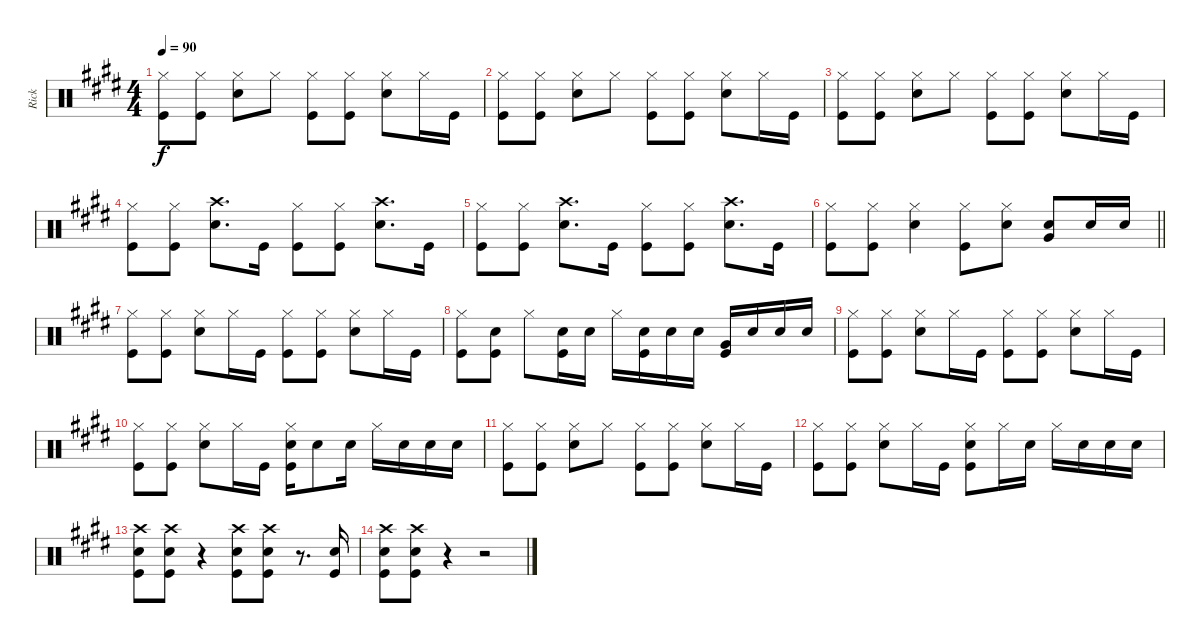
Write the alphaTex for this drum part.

\track ("Rick" "Rick") {instrument percussion}
\staff {score}
\articulation defaults
\ts (4 4)
\tempo 90
\clef neutral
\ks e
("Hi-Hat (closed)" "Kick (hit)").8{dy f} ("Hi-Hat (closed)" "Kick (hit)").8 ("Hi-Hat (closed)" "Snare (hit) 2").8 "Hi-Hat (closed)".8 ("Hi-Hat (closed)" "Kick (hit)").8 ("Hi-Hat (closed)" "Kick (hit)").8 ("Hi-Hat (closed)" "Snare (hit) 2").8 "Hi-Hat (closed)".16 "Kick (hit)".16 |
("Hi-Hat (closed)" "Kick (hit)").8 ("Hi-Hat (closed)" "Kick (hit)").8 ("Hi-Hat (closed)" "Snare (hit) 2").8 "Hi-Hat (closed)".8 ("Hi-Hat (closed)" "Kick (hit)").8 ("Hi-Hat (closed)" "Kick (hit)").8 ("Hi-Hat (closed)" "Snare (hit) 2").8 "Hi-Hat (closed)".16 "Kick (hit)".16 |
("Hi-Hat (closed)" "Kick (hit)").8 ("Hi-Hat (closed)" "Kick (hit)").8 ("Hi-Hat (closed)" "Snare (hit) 2").8 "Hi-Hat (closed)".8 ("Hi-Hat (closed)" "Kick (hit)").8 ("Hi-Hat (closed)" "Kick (hit)").8 ("Hi-Hat (closed)" "Snare (hit) 2").8 "Hi-Hat (closed)".16 "Kick (hit)".16 |
("Hi-Hat (closed)" "Kick (hit)").8 ("Hi-Hat (closed)" "Kick (hit)").8 ("Crash high (hit)" "Snare (hit) 2").8{d} "Kick (hit)".16 ("Hi-Hat (closed)" "Kick (hit)").8 ("Hi-Hat (closed)" "Kick (hit)").8 ("Crash high (hit)" "Snare (hit) 2").8{d} "Kick (hit)".16 |
("Hi-Hat (closed)" "Kick (hit)").8 ("Hi-Hat (closed)" "Kick (hit)").8 ("Crash high (hit)" "Snare (hit) 2").8{d} "Kick (hit)".16 ("Hi-Hat (closed)" "Kick (hit)").8 ("Hi-Hat (closed)" "Kick (hit)").8 ("Crash high (hit)" "Snare (hit) 2").8{d} "Kick (hit)".16 |
\barLineRight lightlight
("Hi-Hat (closed)" "Kick (hit)").8 ("Hi-Hat (closed)" "Kick (hit)").8 ("Hi-Hat (closed)" "Snare (hit) 2").4 ("Hi-Hat (closed)" "Kick (hit)").8 ("Hi-Hat (closed)" "Snare (hit) 2").8 ("Snare (hit) 2" "Very Low Tom (hit)").8 "Snare (hit) 2".16 "Snare (hit) 2".16 |
("Hi-Hat (closed)" "Kick (hit)").8 ("Hi-Hat (closed)" "Kick (hit)").8 ("Hi-Hat (closed)" "Snare (hit) 2").8 "Hi-Hat (closed)".16 "Kick (hit)".16 ("Hi-Hat (closed)" "Kick (hit)").8 ("Hi-Hat (closed)" "Kick (hit)").8 ("Hi-Hat (closed)" "Snare (hit) 2").8 "Hi-Hat (closed)".16 "Kick (hit)".16 |
("Hi-Hat (closed)" "Kick (hit)").8 ("Snare (hit) 2" "Kick (hit)").8 "Hi-Hat (closed)".8 ("Snare (hit) 2" "Kick (hit)").16 "Snare (hit) 2".16 "Hi-Hat (closed)".16 ("Snare (hit) 2" "Kick (hit)").16 "Snare (hit) 2".16 "Snare (hit) 2".16 ("Very Low Tom (hit)" "Kick (hit)").16 "Snare (hit) 2".16 "Snare (hit) 2".16 "Snare (hit) 2".16 |
("Hi-Hat (closed)" "Kick (hit)").8 ("Hi-Hat (closed)" "Kick (hit)").8 ("Hi-Hat (closed)" "Snare (hit) 2").8 "Hi-Hat (closed)".16 "Kick (hit)".16 ("Hi-Hat (closed)" "Kick (hit)").8 ("Hi-Hat (closed)" "Kick (hit)").8 ("Hi-Hat (closed)" "Snare (hit) 2").8 "Hi-Hat (closed)".16 "Kick (hit)".16 |
("Hi-Hat (closed)" "Kick (hit)").8 ("Hi-Hat (closed)" "Kick (hit)").8 ("Hi-Hat (closed)" "Snare (hit) 2").8 "Hi-Hat (closed)".16 "Kick (hit)".16 ("Hi-Hat (closed)" "Snare (hit) 2" "Kick (hit)").16 "Snare (hit) 2".8 "Snare (hit) 2".16 "Hi-Hat (closed)".16 "Snare (hit) 2".16 "Snare (hit) 2".16 "Snare (hit) 2".16 |
("Hi-Hat (closed)" "Kick (hit)").8 ("Hi-Hat (closed)" "Kick (hit)").8 ("Hi-Hat (closed)" "Snare (hit) 2").8 "Hi-Hat (closed)".8 ("Hi-Hat (closed)" "Kick (hit)").8 ("Hi-Hat (closed)" "Kick (hit)").8 ("Hi-Hat (closed)" "Snare (hit) 2").8 "Hi-Hat (closed)".16 "Kick (hit)".16 |
("Hi-Hat (closed)" "Kick (hit)").8 ("Hi-Hat (closed)" "Kick (hit)").8 ("Hi-Hat (closed)" "Snare (hit) 2").8 "Hi-Hat (closed)".16 "Kick (hit)".16 ("Hi-Hat (closed)" "Snare (hit) 2" "Kick (hit)").8 "Hi-Hat (closed)".16 "Snare (hit) 2".16 "Hi-Hat (closed)".16 "Snare (hit) 2".16 "Snare (hit) 2".16 "Snare (hit) 2".16 |
("Crash high (hit)" "Snare (hit) 2" "Kick (hit)").8 ("Crash high (hit)" "Snare (hit) 2" "Kick (hit)").8 r.4 ("Crash high (hit)" "Snare (hit) 2" "Kick (hit)").8 ("Crash high (hit)" "Snare (hit) 2" "Kick (hit)").8 r.8{d} ("Snare (hit) 2" "Kick (hit)").16 |
("Crash high (hit)" "Snare (hit) 2" "Kick (hit)").8 ("Crash high (hit)" "Snare (hit) 2" "Kick (hit)").8 r.4 r.2
